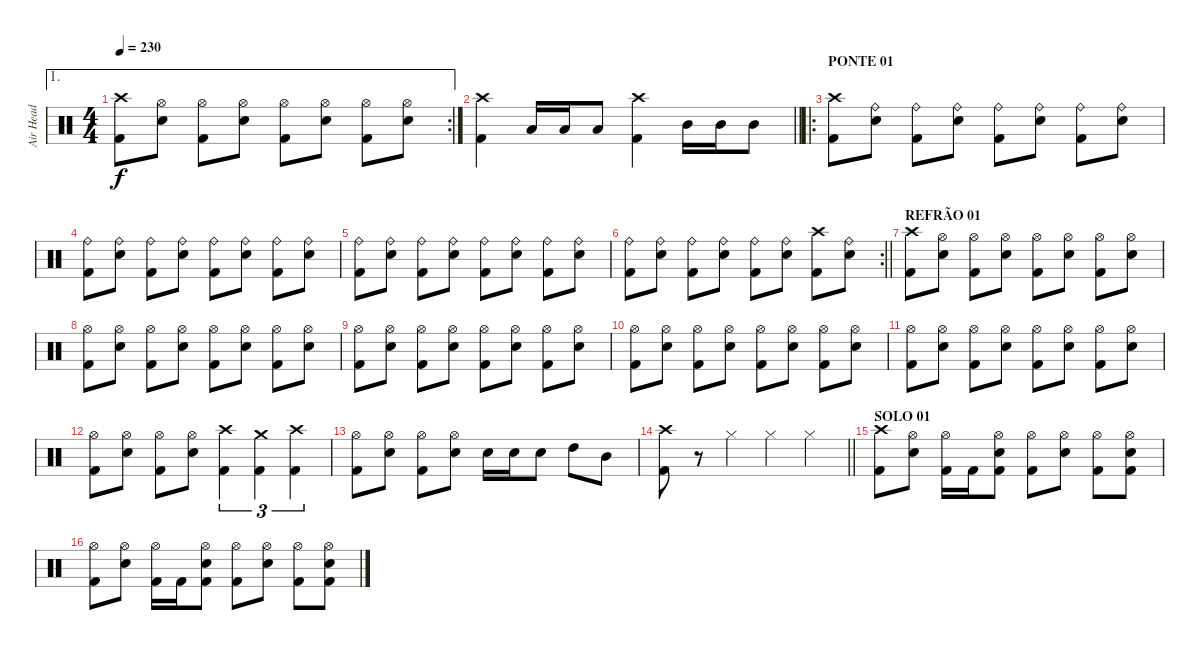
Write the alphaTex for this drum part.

\track ("Air Head" "Air Head") {instrument percussion}
\staff {score}
\articulation defaults
\ae 1
\rc 2
\ts (4 4)
\tempo 230
\clef neutral
\ks c
("Crash high (hit)" "Kick (hit) 2").8{dy f} ("Hi-Hat (open)" "Snare (hit) 2").8 ("Hi-Hat (open)" "Kick (hit) 2").8 ("Hi-Hat (open)" "Snare (hit) 2").8 ("Hi-Hat (open)" "Kick (hit) 2").8 ("Hi-Hat (open)" "Snare (hit) 2").8 ("Hi-Hat (open)" "Kick (hit) 2").8 ("Hi-Hat (open)" "Snare (hit) 2").8 |
\barLineRight lightlight
("Crash high (hit)" "Kick (hit) 2").4 "Low Tom (hit)".16 "Low Tom (hit)".16 "Low Tom (hit)".8 ("Crash high (hit)" "Kick (hit) 2").4 "Mid Tom (hit)".16 "Mid Tom (hit)".16 "Mid Tom (hit)".8 |
\ro
\section ("" "PONTE 01")
("Crash high (hit)" "Kick (hit) 2").8 ("Ride (bell)" "Snare (hit) 2").8 ("Ride (bell)" "Kick (hit) 2").8 ("Ride (bell)" "Snare (hit) 2").8 ("Ride (bell)" "Kick (hit) 2").8 ("Ride (bell)" "Snare (hit) 2").8 ("Ride (bell)" "Kick (hit) 2").8 ("Ride (bell)" "Snare (hit) 2").8 |
("Ride (bell)" "Kick (hit) 2").8 ("Ride (bell)" "Snare (hit) 2").8 ("Ride (bell)" "Kick (hit) 2").8 ("Ride (bell)" "Snare (hit) 2").8 ("Ride (bell)" "Kick (hit) 2").8 ("Ride (bell)" "Snare (hit) 2").8 ("Ride (bell)" "Kick (hit) 2").8 ("Ride (bell)" "Snare (hit) 2").8 |
("Ride (bell)" "Kick (hit) 2").8 ("Ride (bell)" "Snare (hit) 2").8 ("Ride (bell)" "Kick (hit) 2").8 ("Ride (bell)" "Snare (hit) 2").8 ("Ride (bell)" "Kick (hit) 2").8 ("Ride (bell)" "Snare (hit) 2").8 ("Ride (bell)" "Kick (hit) 2").8 ("Ride (bell)" "Snare (hit) 2").8 |
\rc 2
\barLineRight lightlight
("Ride (bell)" "Kick (hit) 2").8 ("Ride (bell)" "Snare (hit) 2").8 ("Ride (bell)" "Kick (hit) 2").8 ("Ride (bell)" "Snare (hit) 2").8 ("Ride (bell)" "Kick (hit) 2").8 ("Ride (bell)" "Snare (hit) 2").8 ("Crash high (hit)" "Kick (hit) 2").8 ("Ride (bell)" "Snare (hit) 2").8 |
\section ("" "REFRÃO 01")
("Crash high (hit)" "Kick (hit) 2").8 ("Hi-Hat (open)" "Snare (hit) 2").8 ("Hi-Hat (open)" "Kick (hit) 2").8 ("Hi-Hat (open)" "Snare (hit) 2").8 ("Hi-Hat (open)" "Kick (hit) 2").8 ("Hi-Hat (open)" "Snare (hit) 2").8 ("Hi-Hat (open)" "Kick (hit) 2").8 ("Hi-Hat (open)" "Snare (hit) 2").8 |
("Hi-Hat (open)" "Kick (hit) 2").8 ("Hi-Hat (open)" "Snare (hit) 2").8 ("Hi-Hat (open)" "Kick (hit) 2").8 ("Hi-Hat (open)" "Snare (hit) 2").8 ("Hi-Hat (open)" "Kick (hit) 2").8 ("Hi-Hat (open)" "Snare (hit) 2").8 ("Hi-Hat (open)" "Kick (hit) 2").8 ("Hi-Hat (open)" "Snare (hit) 2").8 |
("Hi-Hat (open)" "Kick (hit) 2").8 ("Hi-Hat (open)" "Snare (hit) 2").8 ("Hi-Hat (open)" "Kick (hit) 2").8 ("Hi-Hat (open)" "Snare (hit) 2").8 ("Hi-Hat (open)" "Kick (hit) 2").8 ("Hi-Hat (open)" "Snare (hit) 2").8 ("Hi-Hat (open)" "Kick (hit) 2").8 ("Hi-Hat (open)" "Snare (hit) 2").8 |
("Hi-Hat (open)" "Kick (hit) 2").8 ("Hi-Hat (open)" "Snare (hit) 2").8 ("Hi-Hat (open)" "Kick (hit) 2").8 ("Hi-Hat (open)" "Snare (hit) 2").8 ("Hi-Hat (open)" "Kick (hit) 2").8 ("Hi-Hat (open)" "Snare (hit) 2").8 ("Hi-Hat (open)" "Kick (hit) 2").8 ("Hi-Hat (open)" "Snare (hit) 2").8 |
("Hi-Hat (open)" "Kick (hit) 2").8 ("Hi-Hat (open)" "Snare (hit) 2").8 ("Hi-Hat (open)" "Kick (hit) 2").8 ("Hi-Hat (open)" "Snare (hit) 2").8 ("Hi-Hat (open)" "Kick (hit) 2").8 ("Hi-Hat (open)" "Snare (hit) 2").8 ("Hi-Hat (open)" "Kick (hit) 2").8 ("Hi-Hat (open)" "Snare (hit) 2").8 |
("Hi-Hat (open)" "Kick (hit) 2").8 ("Hi-Hat (open)" "Snare (hit) 2").8 ("Hi-Hat (open)" "Kick (hit) 2").8 ("Hi-Hat (open)" "Snare (hit) 2").8 ("Crash high (hit)" "Kick (hit) 2").4{tu (3 2)} ("Crash medium (hit)" "Kick (hit) 2").4{tu (3 2)} ("Crash high (hit)" "Kick (hit) 2").4{tu (3 2)} |
("Hi-Hat (open)" "Kick (hit) 2").8 ("Hi-Hat (open)" "Snare (hit) 2").8 ("Hi-Hat (open)" "Kick (hit) 2").8 ("Hi-Hat (open)" "Snare (hit) 2").8 "Snare (hit) 2".16 "Snare (hit) 2".16 "Snare (hit) 2".8 "High Tom (hit)".8 "Mid Tom (hit)".8 |
\barLineRight lightlight
("Crash high (hit)" "Kick (hit) 2").8 r.8 "Hi-Hat (closed)".4 "Hi-Hat (closed)".4 "Hi-Hat (closed)".4 |
\section ("" "SOLO 01")
("Crash high (hit)" "Kick (hit) 2").8 ("Hi-Hat (open)" "Snare (hit) 2").8 ("Hi-Hat (open)" "Kick (hit) 2").16 "Kick (hit) 2".16 ("Hi-Hat (open)" "Snare (hit) 2" "Kick (hit) 2").8 ("Hi-Hat (open)" "Kick (hit) 2").8 ("Hi-Hat (open)" "Snare (hit) 2").8 ("Hi-Hat (open)" "Kick (hit) 2").8 ("Hi-Hat (open)" "Snare (hit) 2" "Kick (hit) 2").8 |
("Hi-Hat (open)" "Kick (hit) 2").8 ("Hi-Hat (open)" "Snare (hit) 2").8 ("Hi-Hat (open)" "Kick (hit) 2").16 "Kick (hit) 2".16 ("Hi-Hat (open)" "Snare (hit) 2" "Kick (hit) 2").8 ("Hi-Hat (open)" "Kick (hit) 2").8 ("Hi-Hat (open)" "Snare (hit) 2").8 ("Hi-Hat (open)" "Kick (hit) 2").8 ("Hi-Hat (open)" "Snare (hit) 2" "Kick (hit) 2").8
